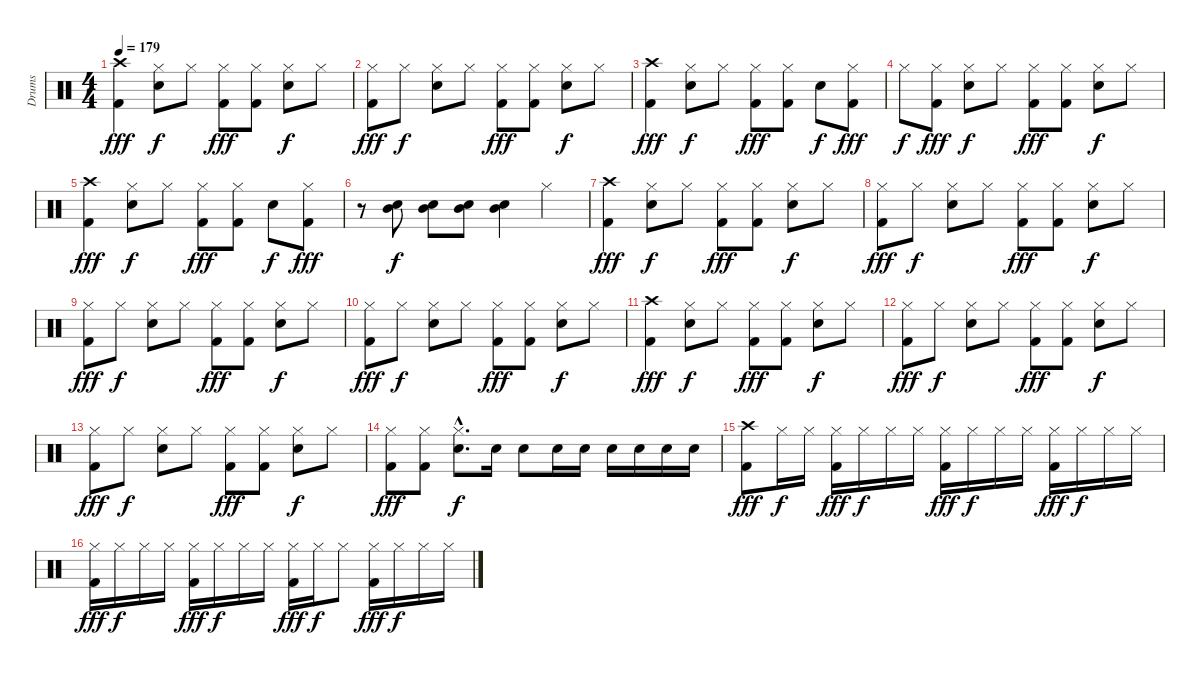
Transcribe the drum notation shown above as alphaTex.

\track ("Drums" "Drums") {instrument percussion}
\staff {score}
\articulation defaults
\ts (4 4)
\tempo 179
\clef neutral
\ks c
("Crash high (hit)" "Kick (hit) 2").4{dy fff} ("Hi-Hat (closed)" "Electric Snare (hit)").8{dy f} "Hi-Hat (closed)".8 ("Hi-Hat (closed)" "Kick (hit) 2").8{dy fff} ("Hi-Hat (closed)" "Kick (hit) 2").8 ("Hi-Hat (closed)" "Electric Snare (hit)").8{dy f} "Hi-Hat (closed)".8 |
("Hi-Hat (closed)" "Kick (hit) 2").8{dy fff} "Hi-Hat (closed)".8{dy f} ("Hi-Hat (closed)" "Electric Snare (hit)").8 "Hi-Hat (closed)".8 ("Hi-Hat (closed)" "Kick (hit) 2").8{dy fff} ("Hi-Hat (closed)" "Kick (hit) 2").8 ("Hi-Hat (closed)" "Electric Snare (hit)").8{dy f} "Hi-Hat (closed)".8 |
("Crash high (hit)" "Kick (hit) 2").4{dy fff} ("Hi-Hat (closed)" "Electric Snare (hit)").8{dy f} "Hi-Hat (closed)".8 ("Hi-Hat (closed)" "Kick (hit) 2").8{dy fff} ("Hi-Hat (closed)" "Kick (hit) 2").8 "Electric Snare (hit)".8{dy f} ("Hi-Hat (closed)" "Kick (hit) 2").8{dy fff} |
"Hi-Hat (closed)".8{dy f} ("Hi-Hat (closed)" "Kick (hit) 2").8{dy fff} ("Hi-Hat (closed)" "Electric Snare (hit)").8{dy f} "Hi-Hat (closed)".8 ("Hi-Hat (closed)" "Kick (hit) 2").8{dy fff} ("Hi-Hat (closed)" "Kick (hit) 2").8 ("Hi-Hat (closed)" "Electric Snare (hit)").8{dy f} "Hi-Hat (closed)".8 |
("Crash high (hit)" "Kick (hit) 2").4{dy fff} ("Hi-Hat (closed)" "Electric Snare (hit)").8{dy f} "Hi-Hat (closed)".8 ("Hi-Hat (closed)" "Kick (hit) 2").8{dy fff} ("Hi-Hat (closed)" "Kick (hit) 2").8 "Electric Snare (hit)".8{dy f} ("Hi-Hat (closed)" "Kick (hit) 2").8{dy fff} |
r.8 ("Electric Snare (hit)" "Mid Tom (hit)").8{dy f} ("Electric Snare (hit)" "Mid Tom (hit)").8 ("Electric Snare (hit)" "Mid Tom (hit)").8 ("Electric Snare (hit)" "Mid Tom (hit)").4 "Hi-Hat (closed)".4 |
("Crash high (hit)" "Kick (hit) 2").4{dy fff} ("Hi-Hat (closed)" "Electric Snare (hit)").8{dy f} "Hi-Hat (closed)".8 ("Hi-Hat (closed)" "Kick (hit) 2").8{dy fff} ("Hi-Hat (closed)" "Kick (hit) 2").8 ("Hi-Hat (closed)" "Electric Snare (hit)").8{dy f} "Hi-Hat (closed)".8 |
("Hi-Hat (closed)" "Kick (hit) 2").8{dy fff} "Hi-Hat (closed)".8{dy f} ("Hi-Hat (closed)" "Electric Snare (hit)").8 "Hi-Hat (closed)".8 ("Hi-Hat (closed)" "Kick (hit) 2").8{dy fff} ("Hi-Hat (closed)" "Kick (hit) 2").8 ("Hi-Hat (closed)" "Electric Snare (hit)").8{dy f} "Hi-Hat (closed)".8 |
("Hi-Hat (closed)" "Kick (hit) 2").8{dy fff} "Hi-Hat (closed)".8{dy f} ("Hi-Hat (closed)" "Electric Snare (hit)").8 "Hi-Hat (closed)".8 ("Hi-Hat (closed)" "Kick (hit) 2").8{dy fff} ("Hi-Hat (closed)" "Kick (hit) 2").8 ("Hi-Hat (closed)" "Electric Snare (hit)").8{dy f} "Hi-Hat (closed)".8 |
("Hi-Hat (closed)" "Kick (hit) 2").8{dy fff} "Hi-Hat (closed)".8{dy f} ("Hi-Hat (closed)" "Electric Snare (hit)").8 "Hi-Hat (closed)".8 ("Hi-Hat (closed)" "Kick (hit) 2").8{dy fff} ("Hi-Hat (closed)" "Kick (hit) 2").8 ("Hi-Hat (closed)" "Electric Snare (hit)").8{dy f} "Hi-Hat (closed)".8 |
("Crash high (hit)" "Kick (hit) 2").4{dy fff} ("Hi-Hat (closed)" "Electric Snare (hit)").8{dy f} "Hi-Hat (closed)".8 ("Hi-Hat (closed)" "Kick (hit) 2").8{dy fff} ("Hi-Hat (closed)" "Kick (hit) 2").8 ("Hi-Hat (closed)" "Electric Snare (hit)").8{dy f} "Hi-Hat (closed)".8 |
("Hi-Hat (closed)" "Kick (hit) 2").8{dy fff} "Hi-Hat (closed)".8{dy f} ("Hi-Hat (closed)" "Electric Snare (hit)").8 "Hi-Hat (closed)".8 ("Hi-Hat (closed)" "Kick (hit) 2").8{dy fff} ("Hi-Hat (closed)" "Kick (hit) 2").8 ("Hi-Hat (closed)" "Electric Snare (hit)").8{dy f} "Hi-Hat (closed)".8 |
("Hi-Hat (closed)" "Kick (hit) 2").8{dy fff} "Hi-Hat (closed)".8{dy f} ("Hi-Hat (closed)" "Electric Snare (hit)").8 "Hi-Hat (closed)".8 ("Hi-Hat (closed)" "Kick (hit) 2").8{dy fff} ("Hi-Hat (closed)" "Kick (hit) 2").8 ("Hi-Hat (closed)" "Electric Snare (hit)").8{dy f} "Hi-Hat (closed)".8 |
("Hi-Hat (closed)" "Kick (hit) 2").8{dy fff} ("Hi-Hat (closed)" "Kick (hit) 2").8 ("Hi-Hat (closed)"{hac} "Electric Snare (hit)"{hac}).8{d dy f} "Electric Snare (hit)".16 "Electric Snare (hit)".8 "Electric Snare (hit)".16 "Electric Snare (hit)".16 "Electric Snare (hit)".16 "Electric Snare (hit)".16 "Electric Snare (hit)".16 "Electric Snare (hit)".16 |
("Crash high (hit)" "Kick (hit) 2").8{dy fff} "Hi-Hat (closed)".16{dy f} "Hi-Hat (closed)".16 ("Hi-Hat (closed)" "Kick (hit) 2").16{dy fff} "Hi-Hat (closed)".16{dy f} "Hi-Hat (closed)".16 "Hi-Hat (closed)".16 ("Hi-Hat (closed)" "Kick (hit) 2").16{dy fff} "Hi-Hat (closed)".16{dy f} "Hi-Hat (closed)".16 "Hi-Hat (closed)".16 ("Hi-Hat (closed)" "Kick (hit) 2").16{dy fff} "Hi-Hat (closed)".16{dy f} "Hi-Hat (closed)".16 "Hi-Hat (closed)".16 |
("Hi-Hat (closed)" "Kick (hit) 2").16{dy fff} "Hi-Hat (closed)".16{dy f} "Hi-Hat (closed)".16 "Hi-Hat (closed)".16 ("Hi-Hat (closed)" "Kick (hit) 2").16{dy fff} "Hi-Hat (closed)".16{dy f} "Hi-Hat (closed)".16 "Hi-Hat (closed)".16 ("Hi-Hat (closed)" "Kick (hit) 2").16{dy fff} "Hi-Hat (closed)".16{dy f} "Hi-Hat (closed)".8 ("Hi-Hat (closed)" "Kick (hit) 2").16{dy fff} "Hi-Hat (closed)".16{dy f} "Hi-Hat (closed)".16 "Hi-Hat (closed)".16
